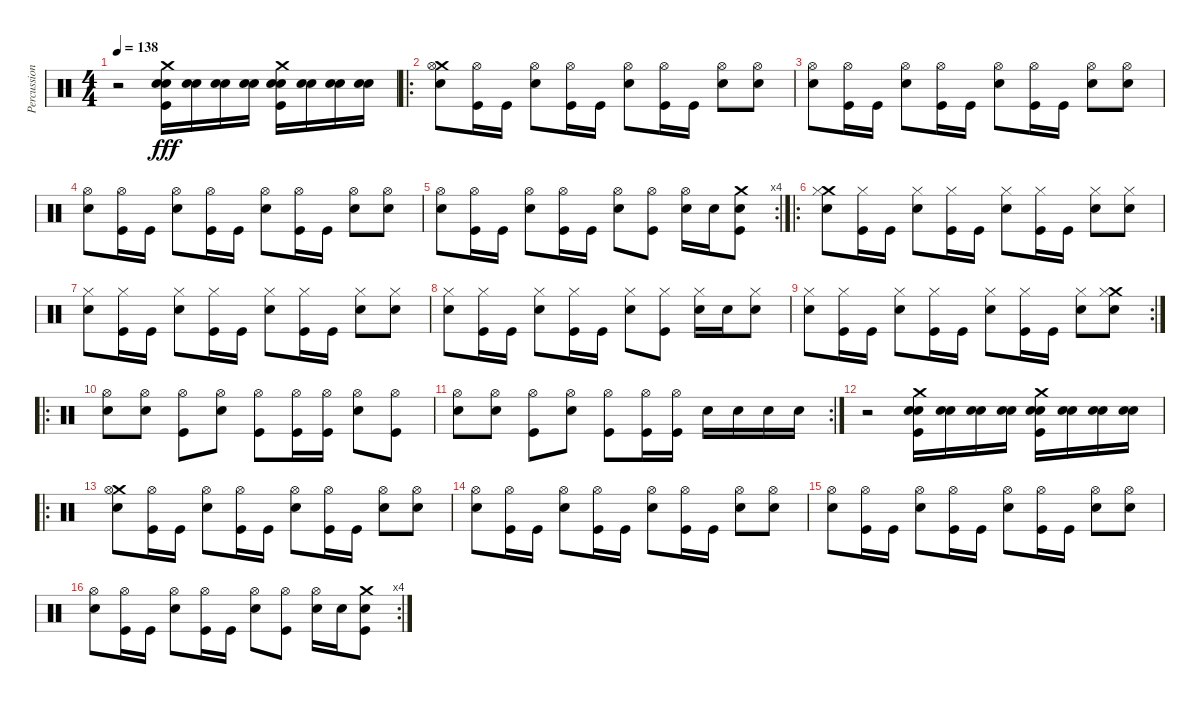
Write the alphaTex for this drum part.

\track ("Percussion" "Percussion") {instrument percussion}
\staff {score}
\articulation defaults
\ts (4 4)
\tempo 138
\clef neutral
\ks c
r.2{dy fff} ("Crash medium (hit)" "Snare (hit) 2" "Snare (hit) 2" "Kick (hit)").16 ("Snare (hit) 2" "Snare (hit) 2").16 ("Snare (hit) 2" "Snare (hit) 2").16 ("Snare (hit) 2" "Snare (hit) 2").16 ("Crash medium (hit)" "Snare (hit) 2" "Snare (hit) 2" "Kick (hit)").16 ("Snare (hit) 2" "Snare (hit) 2").16 ("Snare (hit) 2" "Snare (hit) 2").16 ("Snare (hit) 2" "Snare (hit) 2").16 |
\ro
("Crash medium (hit)" "Snare (hit) 2" "Hi-Hat (open)").8 ("Kick (hit)" "Hi-Hat (open)").16 "Kick (hit)".16 ("Snare (hit) 2" "Hi-Hat (open)").8 ("Kick (hit)" "Hi-Hat (open)").16 "Kick (hit)".16 ("Snare (hit) 2" "Hi-Hat (open)").8 ("Kick (hit)" "Hi-Hat (open)").16 "Kick (hit)".16 ("Snare (hit) 2" "Hi-Hat (open)").8 ("Snare (hit) 2" "Hi-Hat (open)").8 |
("Snare (hit) 2" "Hi-Hat (open)").8 ("Kick (hit)" "Hi-Hat (open)").16 "Kick (hit)".16 ("Snare (hit) 2" "Hi-Hat (open)").8 ("Kick (hit)" "Hi-Hat (open)").16 "Kick (hit)".16 ("Snare (hit) 2" "Hi-Hat (open)").8 ("Kick (hit)" "Hi-Hat (open)").16 "Kick (hit)".16 ("Snare (hit) 2" "Hi-Hat (open)").8 ("Snare (hit) 2" "Hi-Hat (open)").8 |
("Snare (hit) 2" "Hi-Hat (open)").8 ("Kick (hit)" "Hi-Hat (open)").16 "Kick (hit)".16 ("Snare (hit) 2" "Hi-Hat (open)").8 ("Kick (hit)" "Hi-Hat (open)").16 "Kick (hit)".16 ("Snare (hit) 2" "Hi-Hat (open)").8 ("Kick (hit)" "Hi-Hat (open)").16 "Kick (hit)".16 ("Snare (hit) 2" "Hi-Hat (open)").8 ("Snare (hit) 2" "Hi-Hat (open)").8 |
\rc 4
("Snare (hit) 2" "Hi-Hat (open)").8 ("Kick (hit)" "Hi-Hat (open)").16 "Kick (hit)".16 ("Snare (hit) 2" "Hi-Hat (open)").8 ("Kick (hit)" "Hi-Hat (open)").16 "Kick (hit)".16 ("Snare (hit) 2" "Hi-Hat (open)").8 ("Kick (hit)" "Hi-Hat (open)").8 ("Snare (hit) 2" "Hi-Hat (open)").16 "Snare (hit) 2".16 ("Crash medium (hit)" "Snare (hit) 2" "Kick (hit)").8 |
\ro
("Crash medium (hit)" "Snare (hit) 2" "Hi-Hat (closed)").8 ("Kick (hit)" "Hi-Hat (closed)").16 "Kick (hit)".16 ("Snare (hit) 2" "Hi-Hat (closed)").8 ("Kick (hit)" "Hi-Hat (closed)").16 "Kick (hit)".16 ("Snare (hit) 2" "Hi-Hat (closed)").8 ("Kick (hit)" "Hi-Hat (closed)").16 "Kick (hit)".16 ("Snare (hit) 2" "Hi-Hat (closed)").8 ("Snare (hit) 2" "Hi-Hat (closed)").8 |
("Snare (hit) 2" "Hi-Hat (closed)").8 ("Kick (hit)" "Hi-Hat (closed)").16 "Kick (hit)".16 ("Snare (hit) 2" "Hi-Hat (closed)").8 ("Kick (hit)" "Hi-Hat (closed)").16 "Kick (hit)".16 ("Snare (hit) 2" "Hi-Hat (closed)").8 ("Kick (hit)" "Hi-Hat (closed)").16 "Kick (hit)".16 ("Snare (hit) 2" "Hi-Hat (closed)").8 ("Snare (hit) 2" "Hi-Hat (closed)").8 |
("Snare (hit) 2" "Hi-Hat (closed)").8 ("Kick (hit)" "Hi-Hat (closed)").16 "Kick (hit)".16 ("Snare (hit) 2" "Hi-Hat (closed)").8 ("Kick (hit)" "Hi-Hat (closed)").16 "Kick (hit)".16 ("Snare (hit) 2" "Hi-Hat (closed)").8 ("Kick (hit)" "Hi-Hat (closed)").8 ("Snare (hit) 2" "Hi-Hat (closed)").16 "Snare (hit) 2".16 ("Snare (hit) 2" "Hi-Hat (closed)").8 |
\rc 2
("Snare (hit) 2" "Hi-Hat (closed)").8 ("Kick (hit)" "Hi-Hat (closed)").16 "Kick (hit)".16 ("Snare (hit) 2" "Hi-Hat (closed)").8 ("Kick (hit)" "Hi-Hat (closed)").16 "Kick (hit)".16 ("Snare (hit) 2" "Hi-Hat (closed)").8 ("Kick (hit)" "Hi-Hat (closed)").16 "Kick (hit)".16 ("Snare (hit) 2" "Hi-Hat (closed)").8 ("Crash medium (hit)" "Snare (hit) 2" "Hi-Hat (closed)").8 |
\ro
("Snare (hit) 2" "Hi-Hat (open)").8 ("Snare (hit) 2" "Hi-Hat (open)").8 ("Kick (hit)" "Hi-Hat (open)").8 ("Snare (hit) 2" "Hi-Hat (open)").8 ("Kick (hit)" "Hi-Hat (open)").8 ("Kick (hit)" "Hi-Hat (open)").16 ("Kick (hit)" "Hi-Hat (open)").16 ("Snare (hit) 2" "Hi-Hat (open)").8 ("Kick (hit)" "Hi-Hat (open)").8 |
\rc 2
("Snare (hit) 2" "Hi-Hat (open)").8 ("Snare (hit) 2" "Hi-Hat (open)").8 ("Kick (hit)" "Hi-Hat (open)").8 ("Snare (hit) 2" "Hi-Hat (open)").8 ("Kick (hit)" "Hi-Hat (open)").8 ("Kick (hit)" "Hi-Hat (open)").16 ("Kick (hit)" "Hi-Hat (open)").16 "Snare (hit) 2".16 "Snare (hit) 2".16 "Snare (hit) 2".16 "Snare (hit) 2".16 |
r.2 ("Crash medium (hit)" "Snare (hit) 2" "Snare (hit) 2" "Kick (hit)").16 ("Snare (hit) 2" "Snare (hit) 2").16 ("Snare (hit) 2" "Snare (hit) 2").16 ("Snare (hit) 2" "Snare (hit) 2").16 ("Crash medium (hit)" "Snare (hit) 2" "Snare (hit) 2" "Kick (hit)").16 ("Snare (hit) 2" "Snare (hit) 2").16 ("Snare (hit) 2" "Snare (hit) 2").16 ("Snare (hit) 2" "Snare (hit) 2").16 |
\ro
("Crash medium (hit)" "Snare (hit) 2" "Hi-Hat (open)").8 ("Kick (hit)" "Hi-Hat (open)").16 "Kick (hit)".16 ("Snare (hit) 2" "Hi-Hat (open)").8 ("Kick (hit)" "Hi-Hat (open)").16 "Kick (hit)".16 ("Snare (hit) 2" "Hi-Hat (open)").8 ("Kick (hit)" "Hi-Hat (open)").16 "Kick (hit)".16 ("Snare (hit) 2" "Hi-Hat (open)").8 ("Snare (hit) 2" "Hi-Hat (open)").8 |
("Snare (hit) 2" "Hi-Hat (open)").8 ("Kick (hit)" "Hi-Hat (open)").16 "Kick (hit)".16 ("Snare (hit) 2" "Hi-Hat (open)").8 ("Kick (hit)" "Hi-Hat (open)").16 "Kick (hit)".16 ("Snare (hit) 2" "Hi-Hat (open)").8 ("Kick (hit)" "Hi-Hat (open)").16 "Kick (hit)".16 ("Snare (hit) 2" "Hi-Hat (open)").8 ("Snare (hit) 2" "Hi-Hat (open)").8 |
("Snare (hit) 2" "Hi-Hat (open)").8 ("Kick (hit)" "Hi-Hat (open)").16 "Kick (hit)".16 ("Snare (hit) 2" "Hi-Hat (open)").8 ("Kick (hit)" "Hi-Hat (open)").16 "Kick (hit)".16 ("Snare (hit) 2" "Hi-Hat (open)").8 ("Kick (hit)" "Hi-Hat (open)").16 "Kick (hit)".16 ("Snare (hit) 2" "Hi-Hat (open)").8 ("Snare (hit) 2" "Hi-Hat (open)").8 |
\rc 4
("Snare (hit) 2" "Hi-Hat (open)").8 ("Kick (hit)" "Hi-Hat (open)").16 "Kick (hit)".16 ("Snare (hit) 2" "Hi-Hat (open)").8 ("Kick (hit)" "Hi-Hat (open)").16 "Kick (hit)".16 ("Snare (hit) 2" "Hi-Hat (open)").8 ("Kick (hit)" "Hi-Hat (open)").8 ("Snare (hit) 2" "Hi-Hat (open)").16 "Snare (hit) 2".16 ("Crash medium (hit)" "Snare (hit) 2" "Kick (hit)").8
